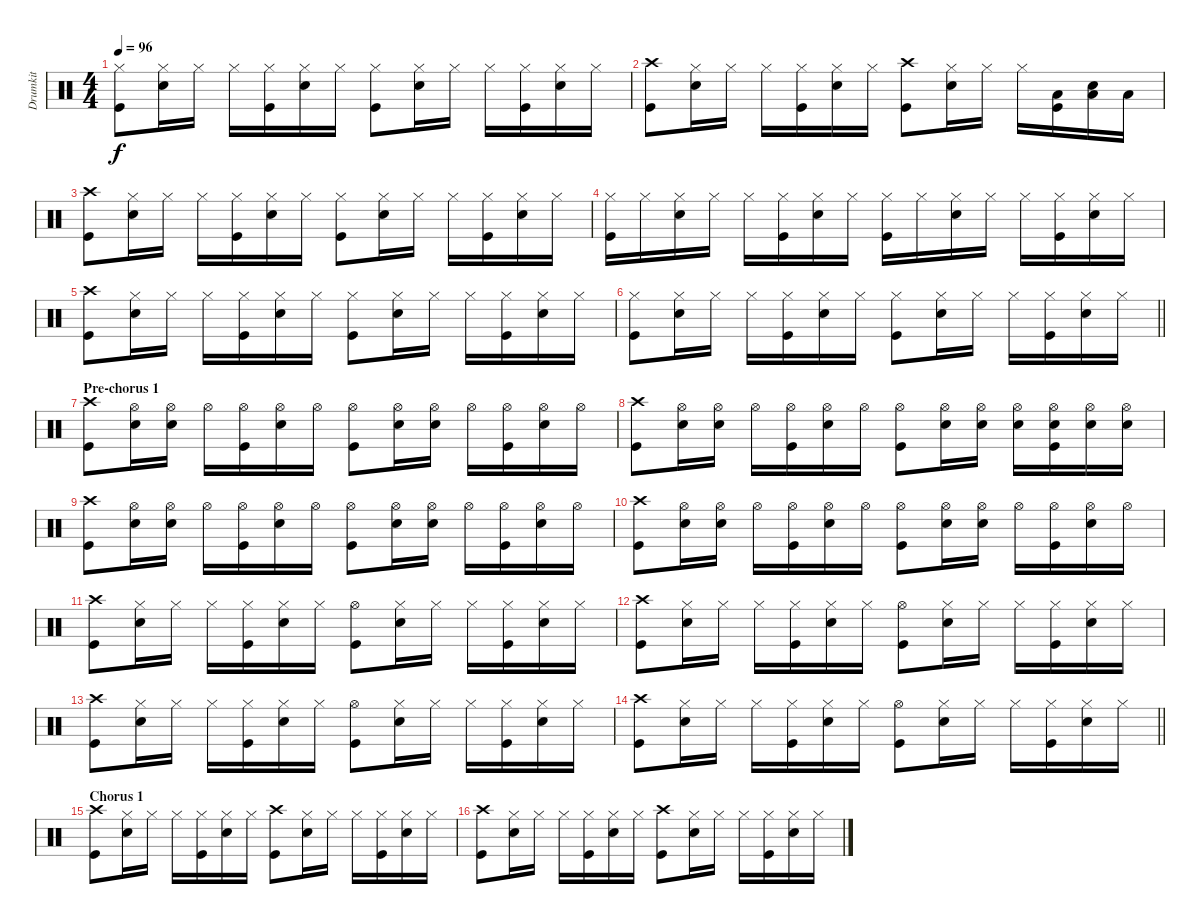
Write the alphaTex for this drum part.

\track ("Drumkit" "Drumkit") {instrument percussion}
\staff {score}
\articulation defaults
\ts (4 4)
\tempo 96
\clef neutral
\ks c
("Hi-Hat (closed)" "Kick (hit)").8{dy f} ("Hi-Hat (closed)" "Snare (hit) 2").16 "Hi-Hat (closed)".16 "Hi-Hat (closed)".16 ("Hi-Hat (closed)" "Kick (hit)").16 ("Hi-Hat (closed)" "Snare (hit) 2").16 "Hi-Hat (closed)".16 ("Hi-Hat (closed)" "Kick (hit)").8 ("Hi-Hat (closed)" "Snare (hit) 2").16 "Hi-Hat (closed)".16 "Hi-Hat (closed)".16 ("Hi-Hat (closed)" "Kick (hit)").16 ("Hi-Hat (closed)" "Snare (hit) 2").16 "Hi-Hat (closed)".16 |
("Crash high (hit)" "Kick (hit)").8 ("Hi-Hat (closed)" "Snare (hit) 2").16 "Hi-Hat (closed)".16 "Hi-Hat (closed)".16 ("Hi-Hat (closed)" "Kick (hit)").16 ("Hi-Hat (closed)" "Snare (hit) 2").16 "Hi-Hat (closed)".16 ("Crash high (hit)" "Kick (hit)").8 ("Hi-Hat (closed)" "Snare (hit) 2").16 "Hi-Hat (closed)".16 "Hi-Hat (closed)".16 ("Low Tom (hit)" "Kick (hit)").16 ("Low Tom (hit)" "Snare (hit) 2").16 "Low Tom (hit)".16 |
("Crash high (hit)" "Kick (hit)").8 ("Hi-Hat (closed)" "Snare (hit) 2").16 "Hi-Hat (closed)".16 "Hi-Hat (closed)".16 ("Hi-Hat (closed)" "Kick (hit)").16 ("Hi-Hat (closed)" "Snare (hit) 2").16 "Hi-Hat (closed)".16 ("Hi-Hat (closed)" "Kick (hit)").8 ("Hi-Hat (closed)" "Snare (hit) 2").16 "Hi-Hat (closed)".16 "Hi-Hat (closed)".16 ("Hi-Hat (closed)" "Kick (hit)").16 ("Hi-Hat (closed)" "Snare (hit) 2").16 "Hi-Hat (closed)".16 |
("Hi-Hat (closed)" "Kick (hit)").16 "Hi-Hat (closed)".16 ("Hi-Hat (closed)" "Snare (hit) 2").16 "Hi-Hat (closed)".16 "Hi-Hat (closed)".16 ("Hi-Hat (closed)" "Kick (hit)").16 ("Hi-Hat (closed)" "Snare (hit) 2").16 "Hi-Hat (closed)".16 ("Hi-Hat (closed)" "Kick (hit)").16 "Hi-Hat (closed)".16 ("Hi-Hat (closed)" "Snare (hit) 2").16 "Hi-Hat (closed)".16 "Hi-Hat (closed)".16 ("Hi-Hat (closed)" "Kick (hit)").16 ("Hi-Hat (closed)" "Snare (hit) 2").16 "Hi-Hat (closed)".16 |
("Crash high (hit)" "Kick (hit)").8 ("Hi-Hat (closed)" "Snare (hit) 2").16 "Hi-Hat (closed)".16 "Hi-Hat (closed)".16 ("Hi-Hat (closed)" "Kick (hit)").16 ("Hi-Hat (closed)" "Snare (hit) 2").16 "Hi-Hat (closed)".16 ("Hi-Hat (closed)" "Kick (hit)").8 ("Hi-Hat (closed)" "Snare (hit) 2").16 "Hi-Hat (closed)".16 "Hi-Hat (closed)".16 ("Hi-Hat (closed)" "Kick (hit)").16 ("Hi-Hat (closed)" "Snare (hit) 2").16 "Hi-Hat (closed)".16 |
\barLineRight lightlight
("Hi-Hat (closed)" "Kick (hit)").8 ("Hi-Hat (closed)" "Snare (hit) 2").16 "Hi-Hat (closed)".16 "Hi-Hat (closed)".16 ("Hi-Hat (closed)" "Kick (hit)").16 ("Hi-Hat (closed)" "Snare (hit) 2").16 "Hi-Hat (closed)".16 ("Hi-Hat (closed)" "Kick (hit)").8 ("Hi-Hat (closed)" "Snare (hit) 2").16 "Hi-Hat (closed)".16 "Hi-Hat (closed)".16 ("Hi-Hat (closed)" "Kick (hit)").16 ("Hi-Hat (closed)" "Snare (hit) 2").16 "Hi-Hat (closed)".16 |
\section ("" "Pre-chorus 1")
("Crash high (hit)" "Kick (hit)").8 ("Hi-Hat (open)" "Snare (hit) 2").16 ("Hi-Hat (open)" "Snare (hit) 2").16 "Hi-Hat (open)".16 ("Hi-Hat (open)" "Kick (hit)").16 ("Hi-Hat (open)" "Snare (hit) 2").16 "Hi-Hat (open)".16 ("Hi-Hat (open)" "Kick (hit)").8 ("Hi-Hat (open)" "Snare (hit) 2").16 ("Hi-Hat (open)" "Snare (hit) 2").16 "Hi-Hat (open)".16 ("Hi-Hat (open)" "Kick (hit)").16 ("Hi-Hat (open)" "Snare (hit) 2").16 "Hi-Hat (open)".16 |
("Crash high (hit)" "Kick (hit)").8 ("Hi-Hat (open)" "Snare (hit) 2").16 ("Hi-Hat (open)" "Snare (hit) 2").16 "Hi-Hat (open)".16 ("Hi-Hat (open)" "Kick (hit)").16 ("Hi-Hat (open)" "Snare (hit) 2").16 "Hi-Hat (open)".16 ("Hi-Hat (open)" "Kick (hit)").8 ("Hi-Hat (open)" "Snare (hit) 2").16 ("Hi-Hat (open)" "Snare (hit) 2").16 ("Hi-Hat (open)" "Snare (hit) 2").16 ("Hi-Hat (open)" "Snare (hit) 2" "Kick (hit)").16 ("Hi-Hat (open)" "Snare (hit) 2").16 ("Hi-Hat (open)" "Snare (hit) 2").16 |
("Crash high (hit)" "Kick (hit)").8 ("Hi-Hat (open)" "Snare (hit) 2").16 ("Hi-Hat (open)" "Snare (hit) 2").16 "Hi-Hat (open)".16 ("Hi-Hat (open)" "Kick (hit)").16 ("Hi-Hat (open)" "Snare (hit) 2").16 "Hi-Hat (open)".16 ("Hi-Hat (open)" "Kick (hit)").8 ("Hi-Hat (open)" "Snare (hit) 2").16 ("Hi-Hat (open)" "Snare (hit) 2").16 "Hi-Hat (open)".16 ("Hi-Hat (open)" "Kick (hit)").16 ("Hi-Hat (open)" "Snare (hit) 2").16 "Hi-Hat (open)".16 |
("Crash high (hit)" "Kick (hit)").8 ("Hi-Hat (open)" "Snare (hit) 2").16 ("Hi-Hat (open)" "Snare (hit) 2").16 "Hi-Hat (open)".16 ("Hi-Hat (open)" "Kick (hit)").16 ("Hi-Hat (open)" "Snare (hit) 2").16 "Hi-Hat (open)".16 ("Hi-Hat (open)" "Kick (hit)").8 ("Hi-Hat (open)" "Snare (hit) 2").16 ("Hi-Hat (open)" "Snare (hit) 2").16 "Hi-Hat (open)".16 ("Hi-Hat (open)" "Kick (hit)").16 ("Hi-Hat (open)" "Snare (hit) 2").16 "Hi-Hat (open)".16 |
("Crash high (hit)" "Kick (hit)").8 ("Hi-Hat (closed)" "Snare (hit) 2").16 "Hi-Hat (closed)".16 "Hi-Hat (closed)".16 ("Hi-Hat (closed)" "Kick (hit)").16 ("Hi-Hat (closed)" "Snare (hit) 2").16 "Hi-Hat (closed)".16 ("Hi-Hat (open)" "Kick (hit)").8 ("Hi-Hat (closed)" "Snare (hit) 2").16 "Hi-Hat (closed)".16 "Hi-Hat (closed)".16 ("Hi-Hat (closed)" "Kick (hit)").16 ("Hi-Hat (closed)" "Snare (hit) 2").16 "Hi-Hat (closed)".16 |
("Crash high (hit)" "Kick (hit)").8 ("Hi-Hat (closed)" "Snare (hit) 2").16 "Hi-Hat (closed)".16 "Hi-Hat (closed)".16 ("Hi-Hat (closed)" "Kick (hit)").16 ("Hi-Hat (closed)" "Snare (hit) 2").16 "Hi-Hat (closed)".16 ("Hi-Hat (open)" "Kick (hit)").8 ("Hi-Hat (closed)" "Snare (hit) 2").16 "Hi-Hat (closed)".16 "Hi-Hat (closed)".16 ("Hi-Hat (closed)" "Kick (hit)").16 ("Hi-Hat (closed)" "Snare (hit) 2").16 "Hi-Hat (closed)".16 |
("Crash high (hit)" "Kick (hit)").8 ("Hi-Hat (closed)" "Snare (hit) 2").16 "Hi-Hat (closed)".16 "Hi-Hat (closed)".16 ("Hi-Hat (closed)" "Kick (hit)").16 ("Hi-Hat (closed)" "Snare (hit) 2").16 "Hi-Hat (closed)".16 ("Hi-Hat (open)" "Kick (hit)").8 ("Hi-Hat (closed)" "Snare (hit) 2").16 "Hi-Hat (closed)".16 "Hi-Hat (closed)".16 ("Hi-Hat (closed)" "Kick (hit)").16 ("Hi-Hat (closed)" "Snare (hit) 2").16 "Hi-Hat (closed)".16 |
\barLineRight lightlight
("Crash high (hit)" "Kick (hit)").8 ("Hi-Hat (closed)" "Snare (hit) 2").16 "Hi-Hat (closed)".16 "Hi-Hat (closed)".16 ("Hi-Hat (closed)" "Kick (hit)").16 ("Hi-Hat (closed)" "Snare (hit) 2").16 "Hi-Hat (closed)".16 ("Hi-Hat (open)" "Kick (hit)").8 ("Hi-Hat (closed)" "Snare (hit) 2").16 "Hi-Hat (closed)".16 "Hi-Hat (closed)".16 ("Hi-Hat (closed)" "Kick (hit)").16 ("Hi-Hat (closed)" "Snare (hit) 2").16 "Hi-Hat (closed)".16 |
\section ("" "Chorus 1")
("Crash high (hit)" "Kick (hit)").8 ("Hi-Hat (closed)" "Snare (hit) 2").16 "Hi-Hat (closed)".16 "Hi-Hat (closed)".16 ("Hi-Hat (closed)" "Kick (hit)").16 ("Hi-Hat (closed)" "Snare (hit) 2").16 "Hi-Hat (closed)".16 ("Crash high (hit)" "Kick (hit)").8 ("Hi-Hat (closed)" "Snare (hit) 2").16 "Hi-Hat (closed)".16 "Hi-Hat (closed)".16 ("Hi-Hat (closed)" "Kick (hit)").16 ("Hi-Hat (closed)" "Snare (hit) 2").16 "Hi-Hat (closed)".16 |
("Crash high (hit)" "Kick (hit)").8 ("Hi-Hat (closed)" "Snare (hit) 2").16 "Hi-Hat (closed)".16 "Hi-Hat (closed)".16 ("Hi-Hat (closed)" "Kick (hit)").16 ("Hi-Hat (closed)" "Snare (hit) 2").16 "Hi-Hat (closed)".16 ("Crash high (hit)" "Kick (hit)").8 ("Hi-Hat (closed)" "Snare (hit) 2").16 "Hi-Hat (closed)".16 "Hi-Hat (closed)".16 ("Hi-Hat (closed)" "Kick (hit)").16 ("Hi-Hat (closed)" "Snare (hit) 2").16 "Hi-Hat (closed)".16
